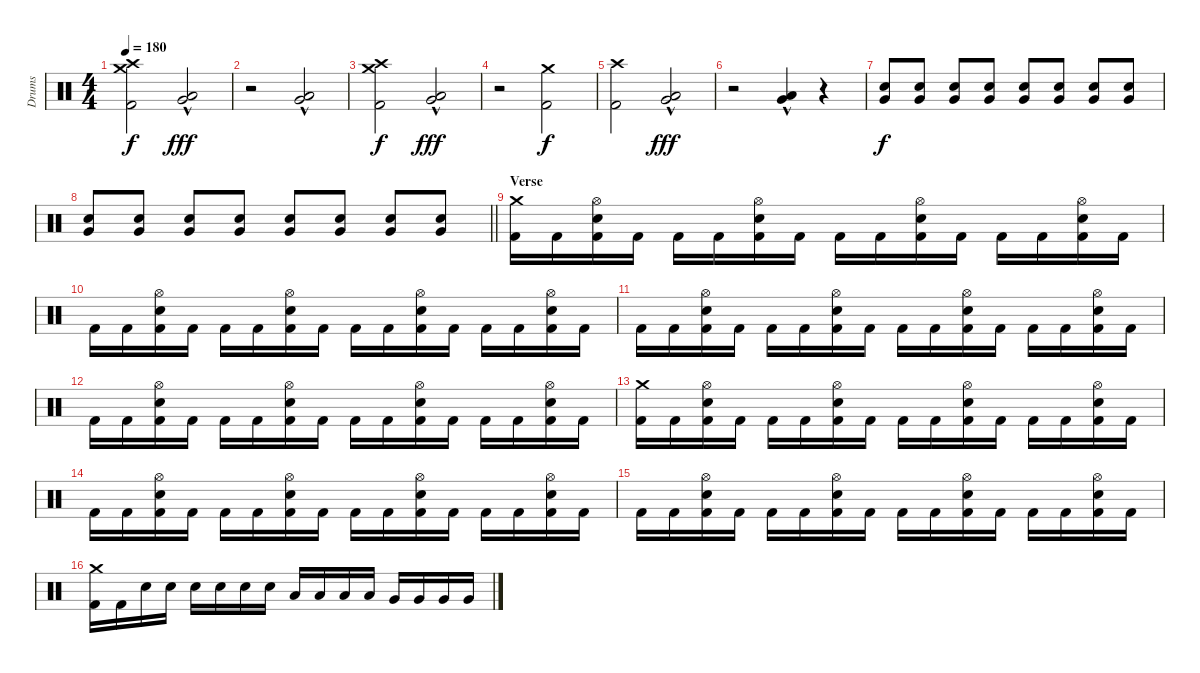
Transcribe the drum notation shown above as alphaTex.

\track ("Drums" "Drums") {instrument percussion}
\staff {score}
\articulation defaults
\ts (4 4)
\tempo 180
\clef neutral
\ks c
("Crash high (hit)" "Crash medium (hit)" "Kick (hit) 2").2{dy f} ("Low Floor Tom (hit)"{hac} "Very Low Tom (hit)"{hac}).2{dy fff} |
r.2 ("Low Floor Tom (hit)"{hac} "Very Low Tom (hit)"{hac}).2 |
("Crash high (hit)" "Crash medium (hit)" "Kick (hit) 2").2{dy f} ("Low Floor Tom (hit)"{hac} "Very Low Tom (hit)"{hac}).2{dy fff} |
r.2 ("Crash medium (hit)" "Kick (hit) 2").2{dy f} |
("Crash high (hit)" "Kick (hit) 2").2 ("Low Floor Tom (hit)"{hac} "Very Low Tom (hit)"{hac}).2{dy fff} |
r.2 ("Low Floor Tom (hit)"{hac} "Very Low Tom (hit)"{hac}).4 r.4{volume 0} |
("Very Low Tom (hit)" "Electric Snare (hit)").8{dy f volume 11} ("Very Low Tom (hit)" "Electric Snare (hit)").8 ("Very Low Tom (hit)" "Electric Snare (hit)").8 ("Very Low Tom (hit)" "Electric Snare (hit)").8 ("Very Low Tom (hit)" "Electric Snare (hit)").8 ("Very Low Tom (hit)" "Electric Snare (hit)").8 ("Very Low Tom (hit)" "Electric Snare (hit)").8 ("Very Low Tom (hit)" "Electric Snare (hit)").8 |
\barLineRight lightlight
("Very Low Tom (hit)" "Electric Snare (hit)").8 ("Very Low Tom (hit)" "Electric Snare (hit)").8 ("Very Low Tom (hit)" "Electric Snare (hit)").8 ("Very Low Tom (hit)" "Electric Snare (hit)").8 ("Very Low Tom (hit)" "Electric Snare (hit)").8 ("Very Low Tom (hit)" "Electric Snare (hit)").8 ("Very Low Tom (hit)" "Electric Snare (hit)").8 ("Very Low Tom (hit)" "Electric Snare (hit)").8 |
\section ("" "Verse")
("Crash medium (hit)" "Kick (hit) 2").16 "Kick (hit) 2".16 ("Hi-Hat (open)" "Electric Snare (hit)" "Kick (hit) 2").16 "Kick (hit) 2".16 "Kick (hit) 2".16 "Kick (hit) 2".16 ("Hi-Hat (open)" "Electric Snare (hit)" "Kick (hit) 2").16 "Kick (hit) 2".16 "Kick (hit) 2".16 "Kick (hit) 2".16 ("Hi-Hat (open)" "Electric Snare (hit)" "Kick (hit) 2").16 "Kick (hit) 2".16 "Kick (hit) 2".16 "Kick (hit) 2".16 ("Hi-Hat (open)" "Electric Snare (hit)" "Kick (hit) 2").16 "Kick (hit) 2".16 |
"Kick (hit) 2".16 "Kick (hit) 2".16 ("Hi-Hat (open)" "Electric Snare (hit)" "Kick (hit) 2").16 "Kick (hit) 2".16 "Kick (hit) 2".16 "Kick (hit) 2".16 ("Hi-Hat (open)" "Electric Snare (hit)" "Kick (hit) 2").16 "Kick (hit) 2".16 "Kick (hit) 2".16 "Kick (hit) 2".16 ("Hi-Hat (open)" "Electric Snare (hit)" "Kick (hit) 2").16 "Kick (hit) 2".16 "Kick (hit) 2".16 "Kick (hit) 2".16 ("Hi-Hat (open)" "Electric Snare (hit)" "Kick (hit) 2").16 "Kick (hit) 2".16 |
"Kick (hit) 2".16 "Kick (hit) 2".16 ("Hi-Hat (open)" "Electric Snare (hit)" "Kick (hit) 2").16 "Kick (hit) 2".16 "Kick (hit) 2".16 "Kick (hit) 2".16 ("Hi-Hat (open)" "Electric Snare (hit)" "Kick (hit) 2").16 "Kick (hit) 2".16 "Kick (hit) 2".16 "Kick (hit) 2".16 ("Hi-Hat (open)" "Electric Snare (hit)" "Kick (hit) 2").16 "Kick (hit) 2".16 "Kick (hit) 2".16 "Kick (hit) 2".16 ("Hi-Hat (open)" "Electric Snare (hit)" "Kick (hit) 2").16 "Kick (hit) 2".16 |
"Kick (hit) 2".16 "Kick (hit) 2".16 ("Hi-Hat (open)" "Electric Snare (hit)" "Kick (hit) 2").16 "Kick (hit) 2".16 "Kick (hit) 2".16 "Kick (hit) 2".16 ("Hi-Hat (open)" "Electric Snare (hit)" "Kick (hit) 2").16 "Kick (hit) 2".16 "Kick (hit) 2".16 "Kick (hit) 2".16 ("Hi-Hat (open)" "Electric Snare (hit)" "Kick (hit) 2").16 "Kick (hit) 2".16 "Kick (hit) 2".16 "Kick (hit) 2".16 ("Hi-Hat (open)" "Electric Snare (hit)" "Kick (hit) 2").16 "Kick (hit) 2".16 |
("Crash medium (hit)" "Kick (hit) 2").16 "Kick (hit) 2".16 ("Hi-Hat (open)" "Electric Snare (hit)" "Kick (hit) 2").16 "Kick (hit) 2".16 "Kick (hit) 2".16 "Kick (hit) 2".16 ("Hi-Hat (open)" "Electric Snare (hit)" "Kick (hit) 2").16 "Kick (hit) 2".16 "Kick (hit) 2".16 "Kick (hit) 2".16 ("Hi-Hat (open)" "Electric Snare (hit)" "Kick (hit) 2").16 "Kick (hit) 2".16 "Kick (hit) 2".16 "Kick (hit) 2".16 ("Hi-Hat (open)" "Electric Snare (hit)" "Kick (hit) 2").16 "Kick (hit) 2".16 |
"Kick (hit) 2".16 "Kick (hit) 2".16 ("Hi-Hat (open)" "Electric Snare (hit)" "Kick (hit) 2").16 "Kick (hit) 2".16 "Kick (hit) 2".16 "Kick (hit) 2".16 ("Hi-Hat (open)" "Electric Snare (hit)" "Kick (hit) 2").16 "Kick (hit) 2".16 "Kick (hit) 2".16 "Kick (hit) 2".16 ("Hi-Hat (open)" "Electric Snare (hit)" "Kick (hit) 2").16 "Kick (hit) 2".16 "Kick (hit) 2".16 "Kick (hit) 2".16 ("Hi-Hat (open)" "Electric Snare (hit)" "Kick (hit) 2").16 "Kick (hit) 2".16 |
"Kick (hit) 2".16 "Kick (hit) 2".16 ("Hi-Hat (open)" "Electric Snare (hit)" "Kick (hit) 2").16 "Kick (hit) 2".16 "Kick (hit) 2".16 "Kick (hit) 2".16 ("Hi-Hat (open)" "Electric Snare (hit)" "Kick (hit) 2").16 "Kick (hit) 2".16 "Kick (hit) 2".16 "Kick (hit) 2".16 ("Hi-Hat (open)" "Electric Snare (hit)" "Kick (hit) 2").16 "Kick (hit) 2".16 "Kick (hit) 2".16 "Kick (hit) 2".16 ("Hi-Hat (open)" "Electric Snare (hit)" "Kick (hit) 2").16 "Kick (hit) 2".16 |
("Crash medium (hit)" "Kick (hit) 2").16 "Kick (hit) 2".16 "Electric Snare (hit)".16 "Electric Snare (hit)".16 "Electric Snare (hit)".16 "Electric Snare (hit)".16 "Electric Snare (hit)".16 "Electric Snare (hit)".16 "Low Tom (hit)".16 "Low Tom (hit)".16 "Low Tom (hit)".16 "Low Tom (hit)".16 "Very Low Tom (hit)".16 "Very Low Tom (hit)".16 "Very Low Tom (hit)".16 "Very Low Tom (hit)".16
